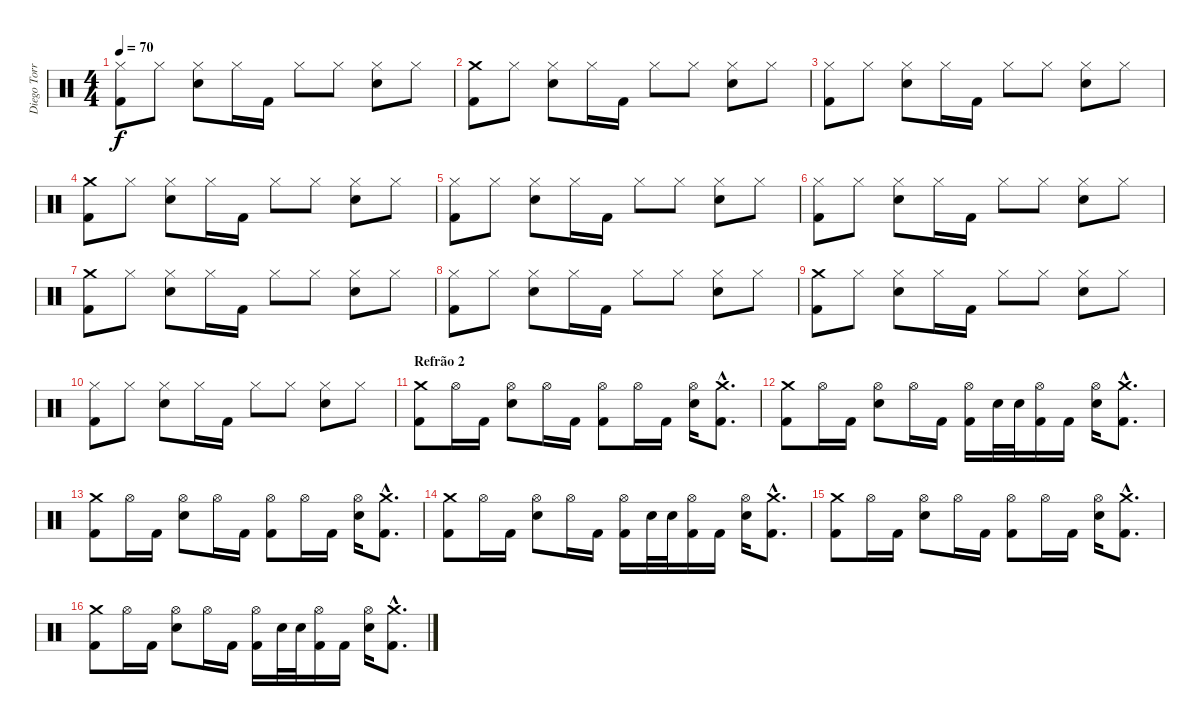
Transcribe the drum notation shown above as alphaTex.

\track ("Diego Torres [Bateria]" "Diego Torr") {instrument percussion}
\staff {score}
\articulation defaults
\ts (4 4)
\tempo 70
\clef neutral
\ks c
("Hi-Hat (closed)" "Kick (hit) 2").8{dy f} "Hi-Hat (closed)".8 ("Hi-Hat (closed)" "Electric Snare (hit)").8 "Hi-Hat (closed)".16 "Kick (hit) 2".16 "Hi-Hat (closed)".8 "Hi-Hat (closed)".8 ("Hi-Hat (closed)" "Electric Snare (hit)").8 "Hi-Hat (closed)".8 |
("Crash medium (hit)" "Kick (hit) 2").8 "Hi-Hat (closed)".8 ("Hi-Hat (closed)" "Electric Snare (hit)").8 "Hi-Hat (closed)".16 "Kick (hit) 2".16 "Hi-Hat (closed)".8 "Hi-Hat (closed)".8 ("Hi-Hat (closed)" "Electric Snare (hit)").8 "Hi-Hat (closed)".8 |
("Hi-Hat (closed)" "Kick (hit) 2").8 "Hi-Hat (closed)".8 ("Hi-Hat (closed)" "Electric Snare (hit)").8 "Hi-Hat (closed)".16 "Kick (hit) 2".16 "Hi-Hat (closed)".8 "Hi-Hat (closed)".8 ("Hi-Hat (closed)" "Electric Snare (hit)").8 "Hi-Hat (closed)".8 |
("Crash medium (hit)" "Kick (hit) 2").8 "Hi-Hat (closed)".8 ("Hi-Hat (closed)" "Electric Snare (hit)").8 "Hi-Hat (closed)".16 "Kick (hit) 2".16 "Hi-Hat (closed)".8 "Hi-Hat (closed)".8 ("Hi-Hat (closed)" "Electric Snare (hit)").8 "Hi-Hat (closed)".8 |
("Hi-Hat (closed)" "Kick (hit) 2").8 "Hi-Hat (closed)".8 ("Hi-Hat (closed)" "Electric Snare (hit)").8 "Hi-Hat (closed)".16 "Kick (hit) 2".16 "Hi-Hat (closed)".8 "Hi-Hat (closed)".8 ("Hi-Hat (closed)" "Electric Snare (hit)").8 "Hi-Hat (closed)".8 |
("Hi-Hat (closed)" "Kick (hit) 2").8 "Hi-Hat (closed)".8 ("Hi-Hat (closed)" "Electric Snare (hit)").8 "Hi-Hat (closed)".16 "Kick (hit) 2".16 "Hi-Hat (closed)".8 "Hi-Hat (closed)".8 ("Hi-Hat (closed)" "Electric Snare (hit)").8 "Hi-Hat (closed)".8 |
("Crash medium (hit)" "Kick (hit) 2").8 "Hi-Hat (closed)".8 ("Hi-Hat (closed)" "Electric Snare (hit)").8 "Hi-Hat (closed)".16 "Kick (hit) 2".16 "Hi-Hat (closed)".8 "Hi-Hat (closed)".8 ("Hi-Hat (closed)" "Electric Snare (hit)").8 "Hi-Hat (closed)".8 |
("Hi-Hat (closed)" "Kick (hit) 2").8 "Hi-Hat (closed)".8 ("Hi-Hat (closed)" "Electric Snare (hit)").8 "Hi-Hat (closed)".16 "Kick (hit) 2".16 "Hi-Hat (closed)".8 "Hi-Hat (closed)".8 ("Hi-Hat (closed)" "Electric Snare (hit)").8 "Hi-Hat (closed)".8 |
("Crash medium (hit)" "Kick (hit) 2").8 "Hi-Hat (closed)".8 ("Hi-Hat (closed)" "Electric Snare (hit)").8 "Hi-Hat (closed)".16 "Kick (hit) 2".16 "Hi-Hat (closed)".8 "Hi-Hat (closed)".8 ("Hi-Hat (closed)" "Electric Snare (hit)").8 "Hi-Hat (closed)".8 |
("Hi-Hat (closed)" "Kick (hit) 2").8 "Hi-Hat (closed)".8 ("Hi-Hat (closed)" "Electric Snare (hit)").8 "Hi-Hat (closed)".16 "Kick (hit) 2".16 "Hi-Hat (closed)".8 "Hi-Hat (closed)".8 ("Hi-Hat (closed)" "Electric Snare (hit)").8 "Hi-Hat (closed)".8 |
\section ("" "Refrão 2")
("Crash medium (hit)" "Kick (hit) 2").8 "Hi-Hat (open)".16 "Kick (hit) 2".16 ("Hi-Hat (open)" "Electric Snare (hit)").8 "Hi-Hat (open)".16 "Kick (hit) 2".16 ("Hi-Hat (open)" "Kick (hit) 2").8 "Hi-Hat (open)".16 "Kick (hit) 2".16 ("Hi-Hat (open)" "Electric Snare (hit)").16 ("Crash medium (hit)"{hac} "Kick (hit) 2"{hac}).8{d} |
("Crash medium (hit)" "Kick (hit) 2").8 "Hi-Hat (open)".16 "Kick (hit) 2".16 ("Hi-Hat (open)" "Electric Snare (hit)").8 "Hi-Hat (open)".16 "Kick (hit) 2".16 ("Hi-Hat (open)" "Kick (hit) 2").16 "Electric Snare (hit)".32 "Electric Snare (hit)".32 ("Hi-Hat (open)" "Kick (hit) 2").16 "Kick (hit) 2".16 ("Hi-Hat (open)" "Electric Snare (hit)").16 ("Crash medium (hit)"{hac} "Kick (hit) 2"{hac}).8{d} |
("Crash medium (hit)" "Kick (hit) 2").8 "Hi-Hat (open)".16 "Kick (hit) 2".16 ("Hi-Hat (open)" "Electric Snare (hit)").8 "Hi-Hat (open)".16 "Kick (hit) 2".16 ("Hi-Hat (open)" "Kick (hit) 2").8 "Hi-Hat (open)".16 "Kick (hit) 2".16 ("Hi-Hat (open)" "Electric Snare (hit)").16 ("Crash medium (hit)"{hac} "Kick (hit) 2"{hac}).8{d} |
("Crash medium (hit)" "Kick (hit) 2").8 "Hi-Hat (open)".16 "Kick (hit) 2".16 ("Hi-Hat (open)" "Electric Snare (hit)").8 "Hi-Hat (open)".16 "Kick (hit) 2".16 ("Hi-Hat (open)" "Kick (hit) 2").16 "Electric Snare (hit)".32 "Electric Snare (hit)".32 ("Hi-Hat (open)" "Kick (hit) 2").16 "Kick (hit) 2".16 ("Hi-Hat (open)" "Electric Snare (hit)").16 ("Crash medium (hit)"{hac} "Kick (hit) 2"{hac}).8{d} |
("Crash medium (hit)" "Kick (hit) 2").8 "Hi-Hat (open)".16 "Kick (hit) 2".16 ("Hi-Hat (open)" "Electric Snare (hit)").8 "Hi-Hat (open)".16 "Kick (hit) 2".16 ("Hi-Hat (open)" "Kick (hit) 2").8 "Hi-Hat (open)".16 "Kick (hit) 2".16 ("Hi-Hat (open)" "Electric Snare (hit)").16 ("Crash medium (hit)"{hac} "Kick (hit) 2"{hac}).8{d} |
("Crash medium (hit)" "Kick (hit) 2").8 "Hi-Hat (open)".16 "Kick (hit) 2".16 ("Hi-Hat (open)" "Electric Snare (hit)").8 "Hi-Hat (open)".16 "Kick (hit) 2".16 ("Hi-Hat (open)" "Kick (hit) 2").16 "Electric Snare (hit)".32 "Electric Snare (hit)".32 ("Hi-Hat (open)" "Kick (hit) 2").16 "Kick (hit) 2".16 ("Hi-Hat (open)" "Electric Snare (hit)").16 ("Crash medium (hit)"{hac} "Kick (hit) 2"{hac}).8{d}
